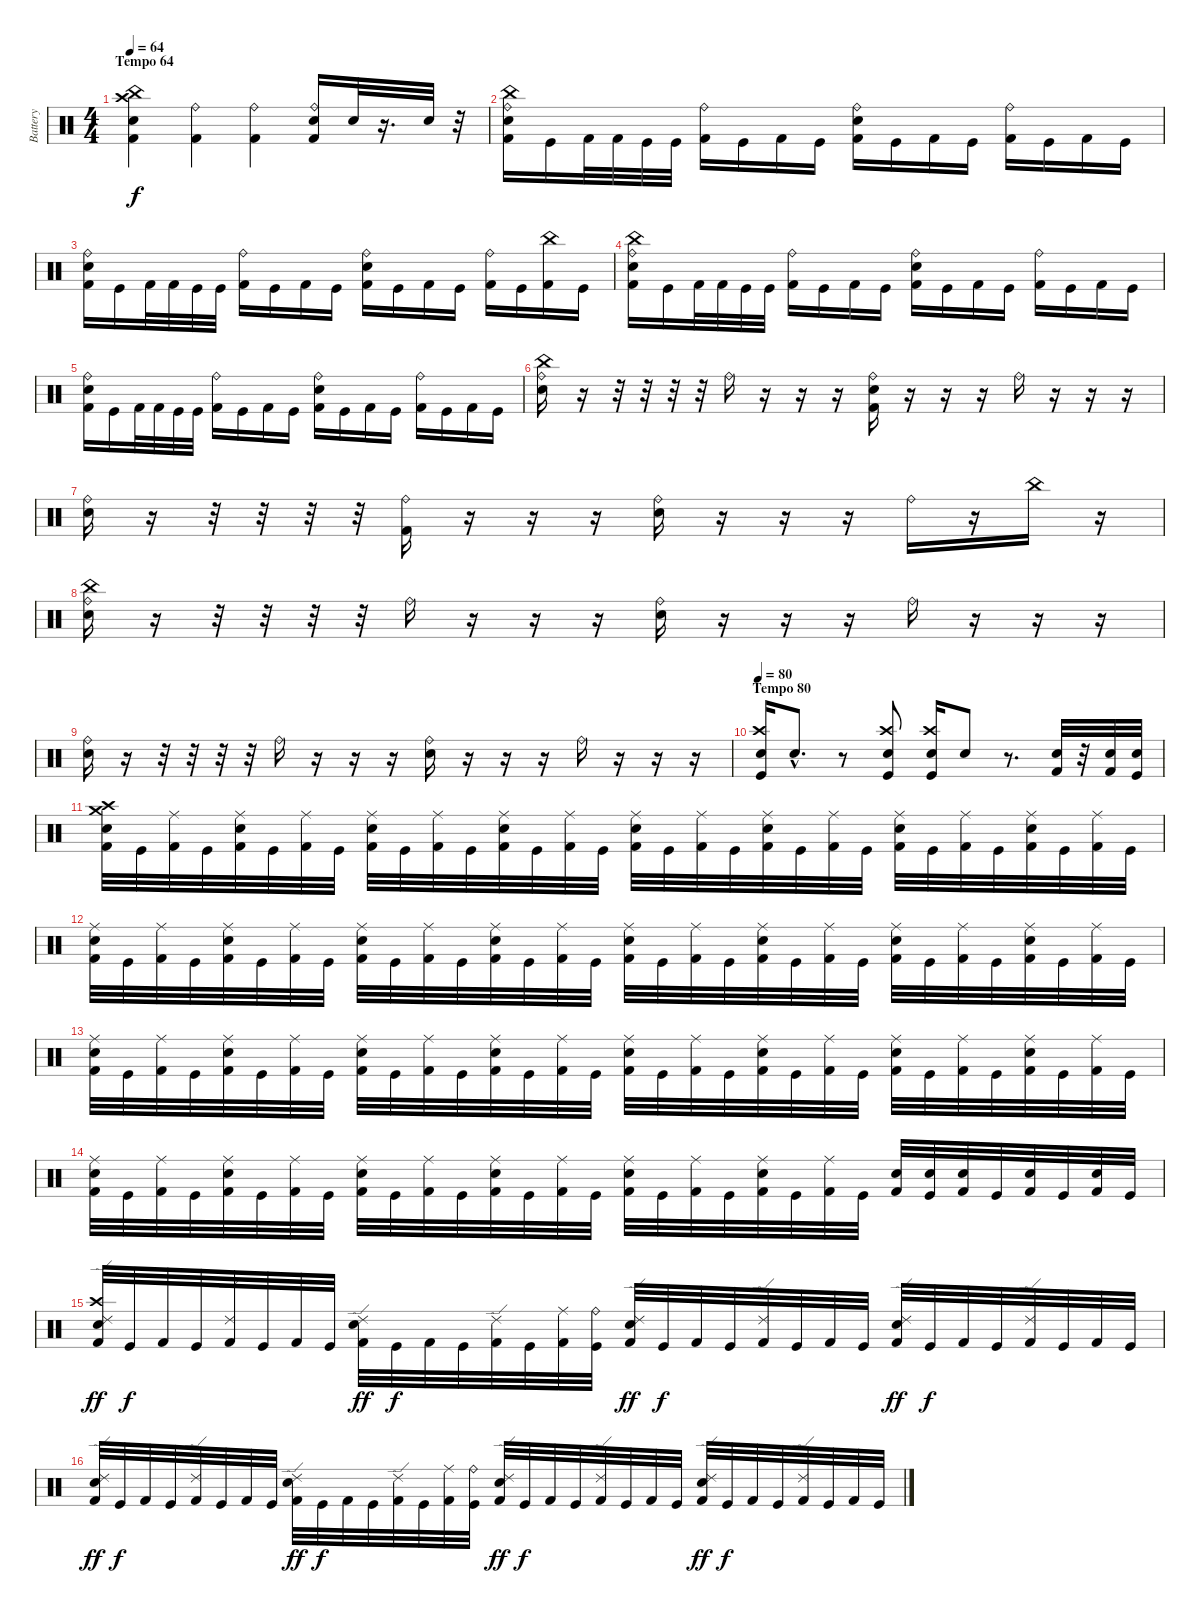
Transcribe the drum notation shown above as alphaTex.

\track ("Battery" "Battery") {instrument percussion}
\staff {score}
\articulation defaults
\ts (4 4)
\section ("" "Tempo 64")
\tempo 64
\clef neutral
\ks c
("Electric Snare (hit)" "China (hit)" "Kick (hit) 2" "Crash high (hit)").4{dy f} ("Kick (hit) 2" "Ride (bell)").4 ("Ride (bell)" "Kick (hit) 2").4 ("Ride (bell)" "Kick (hit) 2" "Snare (hit) 2").16 "Snare (hit) 2".32 r.16{d} "Snare (hit) 2".32 r.32 |
("Kick (hit) 2" "Ride (bell)" "China (hit)" "Electric Snare (hit)").16 "Kick (hit)".16 "Kick (hit) 2".32 "Kick (hit) 2".32 "Kick (hit)".32 "Kick (hit)".32 ("Kick (hit) 2" "Ride (bell)").16 "Kick (hit)".16 "Kick (hit) 2".16 "Kick (hit)".16 ("Kick (hit) 2" "Ride (bell)" "Electric Snare (hit)").16 "Kick (hit)".16 "Kick (hit) 2".16 "Kick (hit)".16 ("Ride (bell)" "Kick (hit) 2").16 "Kick (hit)".16 "Kick (hit) 2".16 "Kick (hit)".16 |
("Kick (hit) 2" "Electric Snare (hit)" "Ride (bell)").16 "Kick (hit)".16 "Kick (hit) 2".32 "Kick (hit) 2".32 "Kick (hit)".32 "Kick (hit)".32 ("Kick (hit) 2" "Ride (bell)").16 "Kick (hit)".16 "Kick (hit) 2".16 "Kick (hit)".16 ("Electric Snare (hit)" "Ride (bell)" "Kick (hit) 2").16 "Kick (hit)".16 "Kick (hit) 2".16 "Kick (hit)".16 ("Kick (hit) 2" "Ride (bell)").16 "Kick (hit)".16 ("Kick (hit) 2" "China (hit)").16 "Kick (hit)".16 |
("Kick (hit) 2" "Electric Snare (hit)" "China (hit)" "Ride (bell)").16 "Kick (hit)".16 "Kick (hit) 2".32 "Kick (hit) 2".32 "Kick (hit)".32 "Kick (hit)".32 ("Kick (hit) 2" "Ride (bell)").16 "Kick (hit)".16 "Kick (hit) 2".16 "Kick (hit)".16 ("Kick (hit) 2" "Ride (bell)" "Electric Snare (hit)").16 "Kick (hit)".16 "Kick (hit) 2".16 "Kick (hit)".16 ("Kick (hit) 2" "Ride (bell)").16 "Kick (hit)".16 "Kick (hit) 2".16 "Kick (hit)".16 |
("Kick (hit) 2" "Electric Snare (hit)" "Ride (bell)").16 "Kick (hit)".16 "Kick (hit) 2".32 "Kick (hit) 2".32 "Kick (hit)".32 "Kick (hit)".32 ("Kick (hit) 2" "Ride (bell)").16 "Kick (hit)".16 "Kick (hit) 2".16 "Kick (hit)".16 ("Ride (bell)" "Electric Snare (hit)" "Kick (hit) 2").16 "Kick (hit)".16 "Kick (hit) 2".16 "Kick (hit)".16 ("Ride (bell)" "Kick (hit) 2").16 "Kick (hit)".16 "Kick (hit) 2".16 "Kick (hit)".16 |
("Ride (bell)" "China (hit)" "Electric Snare (hit)").16 r.16 r.32 r.32 r.32 r.32 "Ride (bell)".16 r.16 r.16 r.16 ("Electric Snare (hit)" "Ride (bell)" "Kick (hit) 2").16 r.16 r.16 r.16 "Ride (bell)".16 r.16 r.16 r.16 |
("Electric Snare (hit)" "Ride (bell)").16 r.16 r.32 r.32 r.32 r.32 ("Ride (bell)" "Kick (hit) 2").16 r.16 r.16 r.16 ("Electric Snare (hit)" "Ride (bell)").16 r.16 r.16 r.16 "Ride (bell)".16 r.16 "China (hit)".16 r.16 |
("China (hit)" "Ride (bell)" "Electric Snare (hit)").16 r.16 r.32 r.32 r.32 r.32 "Ride (bell)".16 r.16 r.16 r.16 ("Electric Snare (hit)" "Ride (bell)").16 r.16 r.16 r.16 "Ride (bell)".16 r.16 r.16 r.16 |
("Electric Snare (hit)" "Ride (bell)").16 r.16 r.32 r.32 r.32 r.32 "Ride (bell)".16 r.16 r.16 r.16 ("Electric Snare (hit)" "Ride (bell)").16 r.16 r.16 r.16 "Ride (bell)".16 r.16 r.16 r.16 |
\section ("" "Tempo 80")
\tempo 80
("Electric Snare (hit)" "Crash high (hit)" "Kick (hit)").16 "Electric Snare (hit)"{hac}.8{d} r.8 ("Electric Snare (hit)" "Crash high (hit)" "Kick (hit)").8 ("Electric Snare (hit)" "Kick (hit)" "Crash high (hit)").16 "Electric Snare (hit)".8 r.8{d} ("Kick (hit) 2" "Snare (hit) 2").32 r.32 ("Kick (hit) 2" "Snare (hit) 2").32 ("Kick (hit)" "Snare (hit) 2").32 |
("Crash medium (hit)" "Crash high (hit)" "Electric Snare (hit)" "Kick (hit) 2").32 "Kick (hit)".32 ("Kick (hit) 2" "Ride (middle)").32 "Kick (hit)".32 ("Electric Snare (hit)" "Kick (hit) 2" "Ride (middle)").32 "Kick (hit)".32 ("Ride (middle)" "Kick (hit) 2").32 "Kick (hit)".32 ("Ride (middle)" "Kick (hit) 2" "Electric Snare (hit)").32 "Kick (hit)".32 ("Kick (hit) 2" "Ride (middle)").32 "Kick (hit)".32 ("Electric Snare (hit)" "Ride (middle)" "Kick (hit) 2").32 "Kick (hit)".32 ("Kick (hit) 2" "Ride (middle)").32 "Kick (hit)".32 ("Kick (hit) 2" "Ride (middle)" "Electric Snare (hit)").32 "Kick (hit)".32 ("Ride (middle)" "Kick (hit) 2").32 "Kick (hit)".32 ("Kick (hit) 2" "Ride (middle)" "Electric Snare (hit)").32 "Kick (hit)".32 ("Kick (hit) 2" "Ride (middle)").32 "Kick (hit)".32 ("Ride (middle)" "Kick (hit) 2" "Electric Snare (hit)").32 "Kick (hit)".32 ("Ride (middle)" "Kick (hit) 2").32 "Kick (hit)".32 ("Kick (hit) 2" "Electric Snare (hit)" "Ride (middle)").32 "Kick (hit)".32 ("Ride (middle)" "Kick (hit) 2").32 "Kick (hit)".32 |
("Ride (middle)" "Kick (hit) 2" "Electric Snare (hit)").32 "Kick (hit)".32 ("Ride (middle)" "Kick (hit) 2").32 "Kick (hit)".32 ("Kick (hit) 2" "Electric Snare (hit)" "Ride (middle)").32 "Kick (hit)".32 ("Kick (hit) 2" "Ride (middle)").32 "Kick (hit)".32 ("Ride (middle)" "Kick (hit) 2" "Electric Snare (hit)").32 "Kick (hit)".32 ("Kick (hit) 2" "Ride (middle)").32 "Kick (hit)".32 ("Electric Snare (hit)" "Ride (middle)" "Kick (hit) 2").32 "Kick (hit)".32 ("Ride (middle)" "Kick (hit) 2").32 "Kick (hit)".32 ("Kick (hit) 2" "Ride (middle)" "Electric Snare (hit)").32 "Kick (hit)".32 ("Ride (middle)" "Kick (hit) 2").32 "Kick (hit)".32 ("Electric Snare (hit)" "Ride (middle)" "Kick (hit) 2").32 "Kick (hit)".32 ("Ride (middle)" "Kick (hit) 2").32 "Kick (hit)".32 ("Electric Snare (hit)" "Kick (hit) 2" "Ride (middle)").32 "Kick (hit)".32 ("Ride (middle)" "Kick (hit) 2").32 "Kick (hit)".32 ("Kick (hit) 2" "Electric Snare (hit)" "Ride (middle)").32 "Kick (hit)".32 ("Kick (hit) 2" "Ride (middle)").32 "Kick (hit)".32 |
("Electric Snare (hit)" "Ride (middle)" "Kick (hit) 2").32 "Kick (hit)".32 ("Kick (hit) 2" "Ride (middle)").32 "Kick (hit)".32 ("Electric Snare (hit)" "Ride (middle)" "Kick (hit) 2").32 "Kick (hit)".32 ("Kick (hit) 2" "Ride (middle)").32 "Kick (hit)".32 ("Kick (hit) 2" "Ride (middle)" "Electric Snare (hit)").32 "Kick (hit)".32 ("Ride (middle)" "Kick (hit) 2").32 "Kick (hit)".32 ("Electric Snare (hit)" "Kick (hit) 2" "Ride (middle)").32 "Kick (hit)".32 ("Kick (hit) 2" "Ride (middle)").32 "Kick (hit)".32 ("Ride (middle)" "Kick (hit) 2" "Electric Snare (hit)").32 "Kick (hit)".32 ("Kick (hit) 2" "Ride (middle)").32 "Kick (hit)".32 ("Kick (hit) 2" "Electric Snare (hit)" "Ride (middle)").32 "Kick (hit)".32 ("Ride (middle)" "Kick (hit) 2").32 "Kick (hit)".32 ("Electric Snare (hit)" "Ride (middle)" "Kick (hit) 2").32 "Kick (hit)".32 ("Ride (middle)" "Kick (hit) 2").32 "Kick (hit)".32 ("Ride (middle)" "Kick (hit) 2" "Electric Snare (hit)").32 "Kick (hit)".32 ("Kick (hit) 2" "Ride (middle)").32 "Kick (hit)".32 |
("Kick (hit) 2" "Ride (middle)" "Electric Snare (hit)").32 "Kick (hit)".32 ("Ride (middle)" "Kick (hit) 2").32 "Kick (hit)".32 ("Kick (hit) 2" "Ride (middle)" "Electric Snare (hit)").32 "Kick (hit)".32 ("Kick (hit) 2" "Ride (middle)").32 "Kick (hit)".32 ("Ride (middle)" "Electric Snare (hit)" "Kick (hit) 2").32 "Kick (hit)".32 ("Ride (middle)" "Kick (hit) 2").32 "Kick (hit)".32 ("Electric Snare (hit)" "Kick (hit) 2" "Ride (middle)").32 "Kick (hit)".32 ("Kick (hit) 2" "Ride (middle)").32 "Kick (hit)".32 ("Kick (hit) 2" "Electric Snare (hit)" "Ride (middle)").32 "Kick (hit)".32 ("Kick (hit) 2" "Ride (middle)").32 "Kick (hit)".32 ("Electric Snare (hit)" "Kick (hit) 2" "Ride (middle)").32 "Kick (hit)".32 ("Ride (middle)" "Kick (hit) 2").32 "Kick (hit)".32 ("Kick (hit) 2" "Electric Snare (hit)").32 ("Kick (hit)" "Electric Snare (hit)").32 ("Kick (hit) 2" "Electric Snare (hit)").32 "Kick (hit)".32 ("Electric Snare (hit)" "Kick (hit) 2").32 "Kick (hit)".32 ("Kick (hit) 2" "Electric Snare (hit)").32 "Kick (hit)".32 |
("Crash high (hit)" "Kick (hit) 2" "Electric Snare (hit)" "Ride (edge) 2").32{dy ff} "Kick (hit)".32{dy f} "Kick (hit) 2".32 "Kick (hit)".32 ("Ride (edge) 2" "Kick (hit) 2").32 "Kick (hit)".32 "Kick (hit) 2".32 "Kick (hit)".32 ("Ride (edge) 2" "Kick (hit) 2" "Electric Snare (hit)").32{dy ff} "Kick (hit)".32{dy f} "Kick (hit) 2".32 "Kick (hit)".32 ("Ride (edge) 2" "Kick (hit) 2").32 "Kick (hit)".32 ("Kick (hit) 2" "Ride (middle)").32 ("Ride (bell)" "Kick (hit)").32 ("Kick (hit) 2" "Ride (edge) 2" "Electric Snare (hit)").32{dy ff} "Kick (hit)".32{dy f} "Kick (hit) 2".32 "Kick (hit)".32 ("Ride (edge) 2" "Kick (hit) 2").32 "Kick (hit)".32 "Kick (hit) 2".32 "Kick (hit)".32 ("Electric Snare (hit)" "Kick (hit) 2" "Ride (edge) 2").32{dy ff} "Kick (hit)".32{dy f} "Kick (hit) 2".32 "Kick (hit)".32 ("Ride (edge) 2" "Kick (hit) 2").32 "Kick (hit)".32 "Kick (hit) 2".32 "Kick (hit)".32 |
("Ride (edge) 2" "Kick (hit) 2" "Electric Snare (hit)").32{dy ff} "Kick (hit)".32{dy f} "Kick (hit) 2".32 "Kick (hit)".32 ("Kick (hit) 2" "Ride (edge) 2").32 "Kick (hit)".32 "Kick (hit) 2".32 "Kick (hit)".32 ("Kick (hit) 2" "Ride (edge) 2" "Electric Snare (hit)").32{dy ff} "Kick (hit)".32{dy f} "Kick (hit) 2".32 "Kick (hit)".32 ("Kick (hit) 2" "Ride (edge) 2").32 "Kick (hit)".32 ("Kick (hit) 2" "Ride (middle)").32 ("Kick (hit)" "Ride (bell)").32 ("Kick (hit) 2" "Electric Snare (hit)" "Ride (edge) 2").32{dy ff} "Kick (hit)".32{dy f} "Kick (hit) 2".32 "Kick (hit)".32 ("Kick (hit) 2" "Ride (edge) 2").32 "Kick (hit)".32 "Kick (hit) 2".32 "Kick (hit)".32 ("Ride (edge) 2" "Electric Snare (hit)" "Kick (hit) 2").32{dy ff} "Kick (hit)".32{dy f} "Kick (hit) 2".32 "Kick (hit)".32 ("Ride (edge) 2" "Kick (hit) 2").32 "Kick (hit)".32 "Kick (hit) 2".32 "Kick (hit)".32
